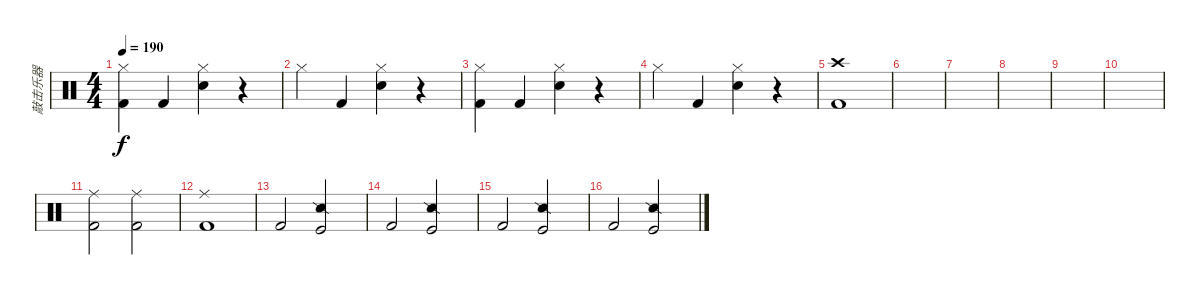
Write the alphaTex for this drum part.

\track ("敲击乐器" "敲击乐器") {instrument percussion}
\staff {score}
\articulation defaults
\ts (4 4)
\tempo 190
\clef neutral
\ks c
("Kick (hit) 2" "Hi-Hat (closed)").4{dy f} "Kick (hit) 2".4 ("Hi-Hat (closed)" "Electric Snare (hit)").4 r.4 |
"Hi-Hat (closed)".4 "Kick (hit) 2".4 ("Electric Snare (hit)" "Hi-Hat (closed)").4 r.4 |
("Kick (hit) 2" "Hi-Hat (closed)").4 "Kick (hit) 2".4 ("Hi-Hat (closed)" "Electric Snare (hit)").4 r.4 |
"Hi-Hat (closed)".4 "Kick (hit) 2".4 ("Electric Snare (hit)" "Hi-Hat (closed)").4 r.4 |
("Crash high (hit)" "Kick (hit) 2").1 |
|
|
|
|
|
("Ride (middle)" "Kick (hit) 2").2 ("Ride (middle)" "Kick (hit) 2").2 |
("Ride (middle)" "Kick (hit) 2").1 |
"Kick (hit) 2".2 ("Kick (hit)" "Snare (side stick) 2").2 |
"Kick (hit) 2".2 ("Kick (hit)" "Snare (side stick) 2").2 |
"Kick (hit) 2".2 ("Kick (hit)" "Snare (side stick) 2").2 |
"Kick (hit) 2".2 ("Kick (hit)" "Snare (side stick) 2").2
